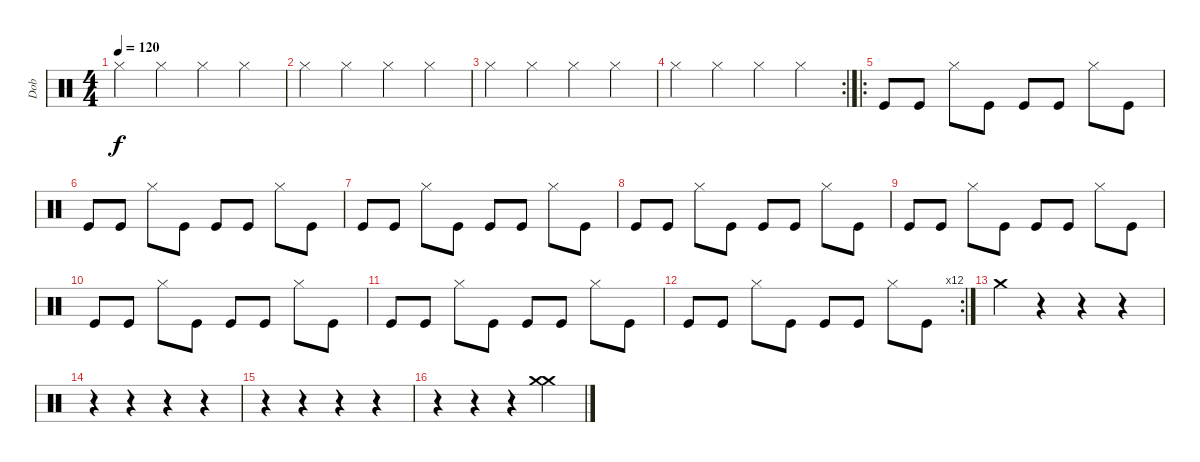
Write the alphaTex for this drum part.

\track ("Dob" "Dob") {instrument percussion}
\staff {score}
\articulation defaults
\ts (4 4)
\tempo 120
\clef neutral
\ks c "Hi-Hat (closed)".4{dy f} "Hi-Hat (closed)".4 "Hi-Hat (closed)".4 "Hi-Hat (closed)".4
|
"Hi-Hat (closed)".4 "Hi-Hat (closed)".4 "Hi-Hat (closed)".4 "Hi-Hat (closed)".4 |
"Hi-Hat (closed)".4 "Hi-Hat (closed)".4 "Hi-Hat (closed)".4 "Hi-Hat (closed)".4 |
\rc 2 "Hi-Hat (closed)".4 "Hi-Hat (closed)".4 "Hi-Hat (closed)".4 "Hi-Hat (closed)".4
|
\ro "Kick (hit)".8 "Kick (hit)".8 "Hi-Hat (closed)".8 "Kick (hit)".8 "Kick (hit)".8 "Kick (hit)".8 "Hi-Hat (closed)".8 "Kick (hit)".8
|
"Kick (hit)".8 "Kick (hit)".8 "Hi-Hat (closed)".8 "Kick (hit)".8 "Kick (hit)".8 "Kick (hit)".8 "Hi-Hat (closed)".8 "Kick (hit)".8 |
"Kick (hit)".8 "Kick (hit)".8 "Hi-Hat (closed)".8 "Kick (hit)".8 "Kick (hit)".8 "Kick (hit)".8 "Hi-Hat (closed)".8 "Kick (hit)".8 |
"Kick (hit)".8 "Kick (hit)".8 "Hi-Hat (closed)".8 "Kick (hit)".8 "Kick (hit)".8 "Kick (hit)".8 "Hi-Hat (closed)".8 "Kick (hit)".8 |
"Kick (hit)".8 "Kick (hit)".8 "Hi-Hat (closed)".8 "Kick (hit)".8 "Kick (hit)".8 "Kick (hit)".8 "Hi-Hat (closed)".8 "Kick (hit)".8 |
"Kick (hit)".8 "Kick (hit)".8 "Hi-Hat (closed)".8 "Kick (hit)".8 "Kick (hit)".8 "Kick (hit)".8 "Hi-Hat (closed)".8 "Kick (hit)".8 |
"Kick (hit)".8 "Kick (hit)".8 "Hi-Hat (closed)".8 "Kick (hit)".8 "Kick (hit)".8 "Kick (hit)".8 "Hi-Hat (closed)".8 "Kick (hit)".8 |
\rc 12 "Kick (hit)".8 "Kick (hit)".8 "Hi-Hat (closed)".8 "Kick (hit)".8 "Kick (hit)".8 "Kick (hit)".8 "Hi-Hat (closed)".8 "Kick (hit)".8
|
"Crash medium (hit)".4 r.4 r.4 r.4 |
r.4 r.4 r.4 r.4 |
r.4 r.4 r.4 r.4 |
r.4 r.4 r.4 ("Crash medium (hit)" "Crash medium (hit)").4
